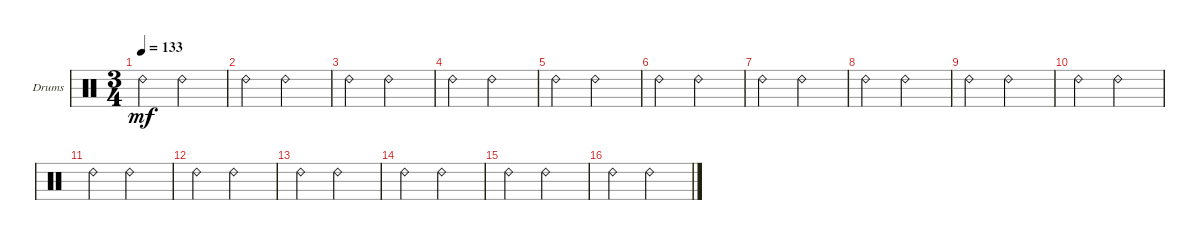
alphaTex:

\bracketExtendMode groupsimilarinstruments
\firstSystemTrackNameOrientation horizontal
\otherSystemsTrackNameOrientation horizontal
\track ("Drumkit" "Drums") {instrument percussion}
\staff {score}
\articulation defaults
\ts (3 4)
\tempo 133
\clef neutral
\ks c "Ride (bell) 2".4{dy mf} "Ride (bell) 2".2
|
"Ride (bell) 2".4 "Ride (bell) 2".2 |
"Ride (bell) 2".4 "Ride (bell) 2".2 |
"Ride (bell) 2".4 "Ride (bell) 2".2 |
"Ride (bell) 2".4 "Ride (bell) 2".2 |
"Ride (bell) 2".4 "Ride (bell) 2".2 |
"Ride (bell) 2".4 "Ride (bell) 2".2 |
"Ride (bell) 2".4 "Ride (bell) 2".2 |
"Ride (bell) 2".4 "Ride (bell) 2".2 |
"Ride (bell) 2".4 "Ride (bell) 2".2 |
"Ride (bell) 2".4 "Ride (bell) 2".2 |
"Ride (bell) 2".4 "Ride (bell) 2".2 |
"Ride (bell) 2".4 "Ride (bell) 2".2 |
"Ride (bell) 2".4 "Ride (bell) 2".2 |
"Ride (bell) 2".4 "Ride (bell) 2".2 |
"Ride (bell) 2".4 "Ride (bell) 2".2
